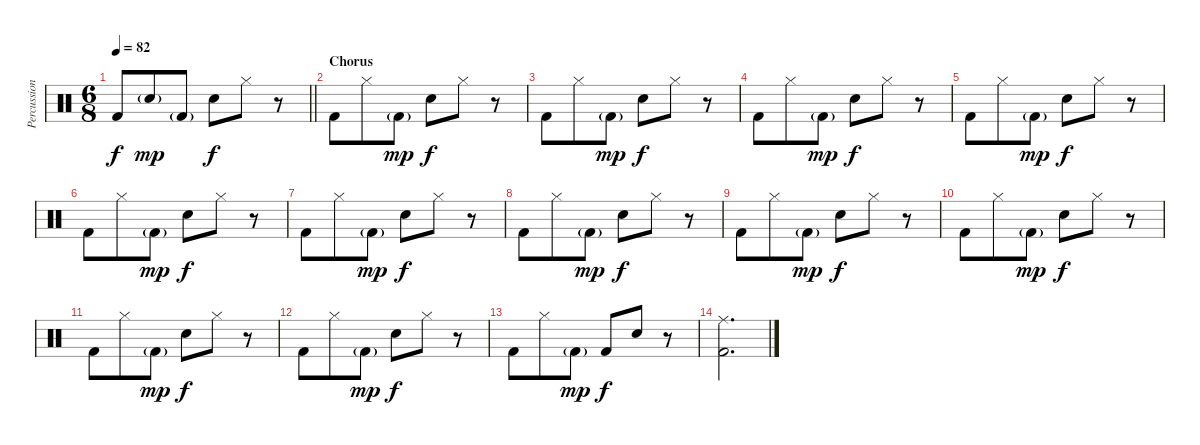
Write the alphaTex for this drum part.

\track ("Percussion" "Percussion") {instrument percussion}
\staff {score}
\articulation defaults
\ts (6 8)
\tempo 82
\clef neutral
\barLineRight lightlight
\ks c "Kick (hit) 2".8{dy f} "Snare (hit) 2"{g}.8{dy mp} "Kick (hit) 2"{g}.8 "Snare (hit) 2".8{dy f} "Hi-Hat (closed)".8
r.8 |
\section ("" "Chorus")
"Kick (hit) 2".8 "Hi-Hat (closed)".8 "Kick (hit) 2"{g}.8{dy mp} "Snare (hit) 2".8{dy f} "Hi-Hat (closed)".8 r.8 |
"Kick (hit) 2".8 "Hi-Hat (closed)".8 "Kick (hit) 2"{g}.8{dy mp} "Snare (hit) 2".8{dy f} "Hi-Hat (closed)".8 r.8 |
"Kick (hit) 2".8 "Hi-Hat (closed)".8 "Kick (hit) 2"{g}.8{dy mp} "Snare (hit) 2".8{dy f} "Hi-Hat (closed)".8 r.8 |
"Kick (hit) 2".8 "Hi-Hat (closed)".8 "Kick (hit) 2"{g}.8{dy mp} "Snare (hit) 2".8{dy f} "Hi-Hat (closed)".8 r.8 |
"Kick (hit) 2".8 "Hi-Hat (closed)".8 "Kick (hit) 2"{g}.8{dy mp} "Snare (hit) 2".8{dy f} "Hi-Hat (closed)".8 r.8 |
"Kick (hit) 2".8 "Hi-Hat (closed)".8 "Kick (hit) 2"{g}.8{dy mp} "Snare (hit) 2".8{dy f} "Hi-Hat (closed)".8 r.8 |
"Kick (hit) 2".8 "Hi-Hat (closed)".8 "Kick (hit) 2"{g}.8{dy mp} "Snare (hit) 2".8{dy f} "Hi-Hat (closed)".8 r.8 |
"Kick (hit) 2".8 "Hi-Hat (closed)".8 "Kick (hit) 2"{g}.8{dy mp} "Snare (hit) 2".8{dy f} "Hi-Hat (closed)".8 r.8 |
"Kick (hit) 2".8 "Hi-Hat (closed)".8 "Kick (hit) 2"{g}.8{dy mp} "Snare (hit) 2".8{dy f} "Hi-Hat (closed)".8 r.8 |
"Kick (hit) 2".8 "Hi-Hat (closed)".8 "Kick (hit) 2"{g}.8{dy mp} "Snare (hit) 2".8{dy f} "Hi-Hat (closed)".8 r.8 |
"Kick (hit) 2".8 "Hi-Hat (closed)".8 "Kick (hit) 2"{g}.8{dy mp} "Snare (hit) 2".8{dy f} "Hi-Hat (closed)".8 r.8 |
"Kick (hit) 2".8 "Hi-Hat (closed)".8 "Kick (hit) 2"{g}.8{dy mp} "Kick (hit) 2".8{dy f} "Snare (hit) 2".8 r.8 |
("Ride (middle)" "Kick (hit) 2").2{d}
